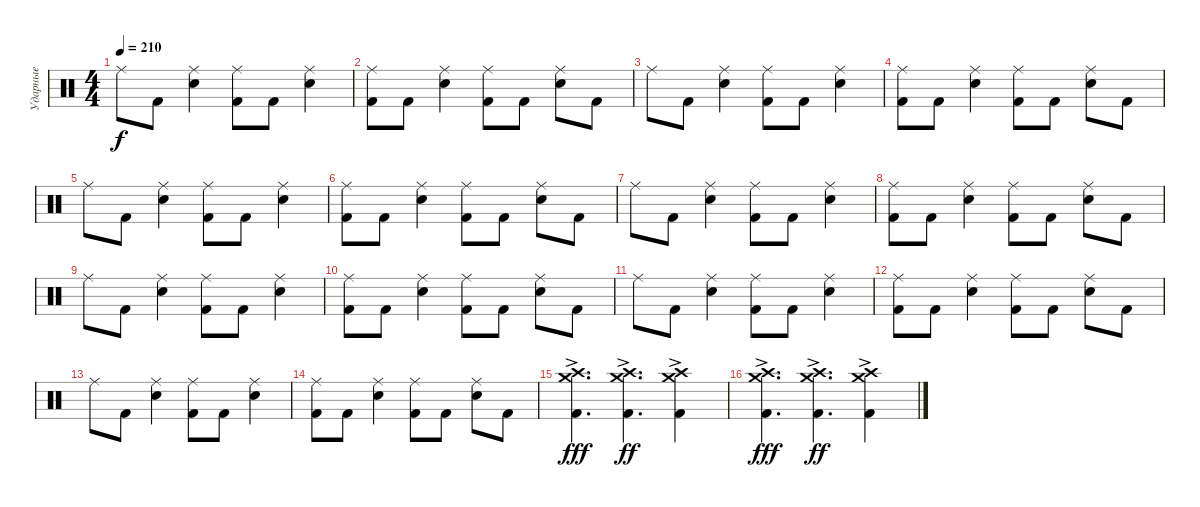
\track ("Ударные" "Ударные") {instrument percussion}
\staff {score}
\articulation defaults
\ts (4 4)
\tempo 210
\clef neutral
\ks c "Ride (middle)".8{dy f} "Kick (hit) 2".8
("Ride (middle)" "Snare (hit) 2").4 ("Ride (middle)" "Kick (hit) 2").8 "Kick (hit) 2".8 ("Ride (middle)" "Snare (hit) 2").4 |
("Ride (middle)" "Kick (hit) 2").8 "Kick (hit) 2".8 ("Ride (middle)" "Snare (hit) 2").4 ("Ride (middle)" "Kick (hit) 2").8 "Kick (hit) 2".8 ("Ride (middle)" "Snare (hit) 2").8 "Kick (hit) 2".8 |
"Ride (middle)".8 "Kick (hit) 2".8 ("Ride (middle)" "Snare (hit) 2").4 ("Ride (middle)" "Kick (hit) 2").8 "Kick (hit) 2".8 ("Ride (middle)" "Snare (hit) 2").4 |
("Ride (middle)" "Kick (hit) 2").8 "Kick (hit) 2".8 ("Ride (middle)" "Snare (hit) 2").4 ("Ride (middle)" "Kick (hit) 2").8 "Kick (hit) 2".8 ("Ride (middle)" "Snare (hit) 2").8 "Kick (hit) 2".8 |
"Ride (middle)".8 "Kick (hit) 2".8 ("Ride (middle)" "Snare (hit) 2").4 ("Ride (middle)" "Kick (hit) 2").8 "Kick (hit) 2".8 ("Ride (middle)" "Snare (hit) 2").4 |
("Ride (middle)" "Kick (hit) 2").8 "Kick (hit) 2".8 ("Ride (middle)" "Snare (hit) 2").4 ("Ride (middle)" "Kick (hit) 2").8 "Kick (hit) 2".8 ("Ride (middle)" "Snare (hit) 2").8 "Kick (hit) 2".8 |
"Ride (middle)".8 "Kick (hit) 2".8 ("Ride (middle)" "Snare (hit) 2").4 ("Ride (middle)" "Kick (hit) 2").8 "Kick (hit) 2".8 ("Ride (middle)" "Snare (hit) 2").4 |
("Ride (middle)" "Kick (hit) 2").8 "Kick (hit) 2".8 ("Ride (middle)" "Snare (hit) 2").4 ("Ride (middle)" "Kick (hit) 2").8 "Kick (hit) 2".8 ("Ride (middle)" "Snare (hit) 2").8 "Kick (hit) 2".8 |
"Ride (middle)".8 "Kick (hit) 2".8 ("Ride (middle)" "Snare (hit) 2").4 ("Ride (middle)" "Kick (hit) 2").8 "Kick (hit) 2".8 ("Ride (middle)" "Snare (hit) 2").4 |
("Ride (middle)" "Kick (hit) 2").8 "Kick (hit) 2".8 ("Ride (middle)" "Snare (hit) 2").4 ("Ride (middle)" "Kick (hit) 2").8 "Kick (hit) 2".8 ("Ride (middle)" "Snare (hit) 2").8 "Kick (hit) 2".8 |
"Ride (middle)".8 "Kick (hit) 2".8 ("Ride (middle)" "Snare (hit) 2").4 ("Ride (middle)" "Kick (hit) 2").8 "Kick (hit) 2".8 ("Ride (middle)" "Snare (hit) 2").4 |
("Ride (middle)" "Kick (hit) 2").8 "Kick (hit) 2".8 ("Ride (middle)" "Snare (hit) 2").4 ("Ride (middle)" "Kick (hit) 2").8 "Kick (hit) 2".8 ("Ride (middle)" "Snare (hit) 2").8 "Kick (hit) 2".8 |
"Ride (middle)".8 "Kick (hit) 2".8 ("Ride (middle)" "Snare (hit) 2").4 ("Ride (middle)" "Kick (hit) 2").8 "Kick (hit) 2".8 ("Ride (middle)" "Snare (hit) 2").4 |
("Ride (middle)" "Kick (hit) 2").8 "Kick (hit) 2".8 ("Ride (middle)" "Snare (hit) 2").4 ("Ride (middle)" "Kick (hit) 2").8 "Kick (hit) 2".8 ("Ride (middle)" "Snare (hit) 2").8 "Kick (hit) 2".8 |
("Crash medium (hit)" "Crash high (hit)"{ac} "Kick (hit) 2").4{d dy fff} ("Crash medium (hit)" "Crash high (hit)"{ac} "Kick (hit) 2").4{d dy ff} ("Crash medium (hit)" "Crash high (hit)"{ac} "Kick (hit) 2").4 |
("Crash medium (hit)" "Crash high (hit)"{ac} "Kick (hit) 2").4{d dy fff} ("Crash medium (hit)" "Crash high (hit)"{ac} "Kick (hit) 2").4{d dy ff} ("Crash medium (hit)" "Crash high (hit)"{ac} "Kick (hit) 2").4
